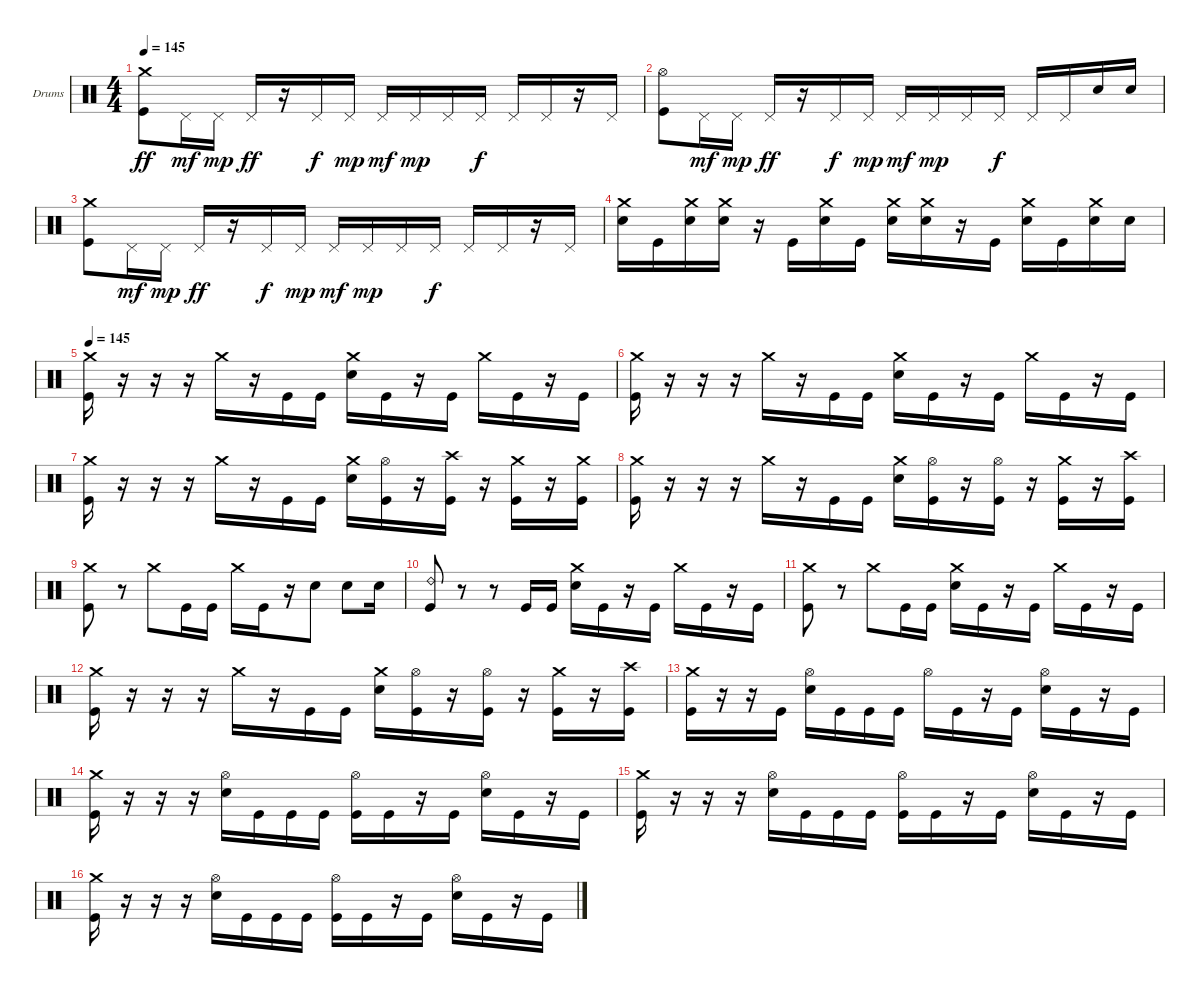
\bracketExtendMode groupsimilarinstruments
\firstSystemTrackNameOrientation horizontal
\otherSystemsTrackNameOrientation horizontal
\track ("Drumkit" "Drums") {instrument percussion}
\staff {score}
\articulation defaults
\ts (4 4)
\tempo 145
\clef neutral
\ks c
("Crash medium (hit)" "Kick (hit)").8{dy ff} "Pedal Hi-Hat (hit)".16{dy mf} "Pedal Hi-Hat (hit)".16{dy mp} "Pedal Hi-Hat (hit)".16{dy ff} r.16 "Pedal Hi-Hat (hit)".16{dy f} "Pedal Hi-Hat (hit)".16{dy mp} "Pedal Hi-Hat (hit)".16{dy mf} "Pedal Hi-Hat (hit)".16{dy mp} "Pedal Hi-Hat (hit)".16 "Pedal Hi-Hat (hit)".16{dy f} "Pedal Hi-Hat (hit)".16 "Pedal Hi-Hat (hit)".16 r.16 "Pedal Hi-Hat (hit)".16 |
("Hi-Hat (open)" "Kick (hit)").8 "Pedal Hi-Hat (hit)".16{dy mf} "Pedal Hi-Hat (hit)".16{dy mp} "Pedal Hi-Hat (hit)".16{dy ff} r.16 "Pedal Hi-Hat (hit)".16{dy f} "Pedal Hi-Hat (hit)".16{dy mp} "Pedal Hi-Hat (hit)".16{dy mf} "Pedal Hi-Hat (hit)".16{dy mp} "Pedal Hi-Hat (hit)".16 "Pedal Hi-Hat (hit)".16{dy f} "Pedal Hi-Hat (hit)".16 "Pedal Hi-Hat (hit)".16 "Snare (hit) 2".16 "Snare (hit) 2".16 |
("Crash medium (hit)" "Kick (hit)").8 "Pedal Hi-Hat (hit)".16{dy mf} "Pedal Hi-Hat (hit)".16{dy mp} "Pedal Hi-Hat (hit)".16{dy ff} r.16 "Pedal Hi-Hat (hit)".16{dy f} "Pedal Hi-Hat (hit)".16{dy mp} "Pedal Hi-Hat (hit)".16{dy mf} "Pedal Hi-Hat (hit)".16{dy mp} "Pedal Hi-Hat (hit)".16 "Pedal Hi-Hat (hit)".16{dy f} "Pedal Hi-Hat (hit)".16 "Pedal Hi-Hat (hit)".16 r.16 "Pedal Hi-Hat (hit)".16 |
("Crash medium (hit)" "Snare (hit) 2").16 "Kick (hit)".16 ("Crash medium (hit)" "Snare (hit) 2").16 ("Crash medium (hit)" "Snare (hit) 2").16 r.16 "Kick (hit)".16 ("Crash medium (hit)" "Snare (hit) 2").16 "Kick (hit)".16 ("Crash medium (hit)" "Snare (hit) 2").16 ("Crash medium (hit)" "Snare (hit) 2").16 r.16 "Kick (hit)".16 ("Crash medium (hit)" "Snare (hit) 2").16 "Kick (hit)".16 ("Crash medium (hit)" "Snare (hit) 2").16 "Snare (hit) 2".16 |
\tempo 145
("Crash medium (hit)" "Kick (hit)").16 r.16 r.16 r.16 "Crash medium (hit)".16 r.16 "Kick (hit)".16 "Kick (hit)".16 ("Crash medium (hit)" "Snare (hit) 2").16 "Kick (hit)".16 r.16 "Kick (hit)".16 "Crash medium (hit)".16 "Kick (hit)".16 r.16 "Kick (hit)".16 |
("Crash medium (hit)" "Kick (hit)").16 r.16 r.16 r.16 "Crash medium (hit)".16 r.16 "Kick (hit)".16 "Kick (hit)".16 ("Crash medium (hit)" "Snare (hit) 2").16 "Kick (hit)".16 r.16 "Kick (hit)".16 "Crash medium (hit)".16 "Kick (hit)".16 r.16 "Kick (hit)".16 |
("Crash medium (hit)" "Kick (hit)").16 r.16 r.16 r.16 "Crash medium (hit)".16 r.16 "Kick (hit)".16 "Kick (hit)".16 ("Crash medium (hit)" "Snare (hit) 2").16 ("Hi-Hat (open)" "Kick (hit)").16 r.16 ("Crash high (hit)" "Kick (hit)").16 r.16 ("Crash medium (hit)" "Kick (hit)").16 r.16 ("Crash medium (hit)" "Kick (hit)").16 |
("Crash medium (hit)" "Kick (hit)").16 r.16 r.16 r.16 "Crash medium (hit)".16 r.16 "Kick (hit)".16 "Kick (hit)".16 ("Crash medium (hit)" "Snare (hit) 2").16 ("Hi-Hat (open)" "Kick (hit)").16 r.16 ("Hi-Hat (open)" "Kick (hit)").16 r.16 ("Crash medium (hit)" "Kick (hit)").16 r.16 ("Crash high (hit)" "Kick (hit)").16 |
("Crash medium (hit)" "Kick (hit)").8 r.8 "Crash medium (hit)".8 "Kick (hit)".16 "Kick (hit)".16 "Crash medium (hit)".16 "Kick (hit)".16 r.16 "Snare (hit) 2".8 "Snare (hit) 2".8 "Snare (hit) 2".16 |
("Ride (bell) 2" "Kick (hit)").8 r.8 r.8 "Kick (hit)".16 "Kick (hit)".16 ("Crash medium (hit)" "Snare (hit) 2").16 "Kick (hit)".16 r.16 "Kick (hit)".16 "Crash medium (hit)".16 "Kick (hit)".16 r.16 "Kick (hit)".16 |
("Crash medium (hit)" "Kick (hit)").8 r.8 "Crash medium (hit)".8 "Kick (hit)".16 "Kick (hit)".16 ("Crash medium (hit)" "Snare (hit) 2").16 "Kick (hit)".16 r.16 "Kick (hit)".16 "Crash medium (hit)".16 "Kick (hit)".16 r.16 "Kick (hit)".16 |
("Crash medium (hit)" "Kick (hit)").16 r.16 r.16 r.16 "Crash medium (hit)".16 r.16 "Kick (hit)".16 "Kick (hit)".16 ("Crash medium (hit)" "Snare (hit) 2").16 ("Hi-Hat (open)" "Kick (hit)").16 r.16 ("Hi-Hat (open)" "Kick (hit)").16 r.16 ("Crash medium (hit)" "Kick (hit)").16 r.16 ("Crash high (hit)" "Kick (hit)").16 |
("Crash medium (hit)" "Kick (hit)").16 r.16 r.16 "Kick (hit)".16 ("Hi-Hat (open)" "Snare (hit) 2").16 "Kick (hit)".16 "Kick (hit)".16 "Kick (hit)".16 "Hi-Hat (open)".16 "Kick (hit)".16 r.16 "Kick (hit)".16 ("Hi-Hat (open)" "Snare (hit) 2").16 "Kick (hit)".16 r.16 "Kick (hit)".16 |
("Crash medium (hit)" "Kick (hit)").16 r.16 r.16 r.16 ("Hi-Hat (open)" "Snare (hit) 2").16 "Kick (hit)".16 "Kick (hit)".16 "Kick (hit)".16 ("Hi-Hat (open)" "Kick (hit)").16 "Kick (hit)".16 r.16 "Kick (hit)".16 ("Hi-Hat (open)" "Snare (hit) 2").16 "Kick (hit)".16 r.16 "Kick (hit)".16 |
("Crash medium (hit)" "Kick (hit)").16 r.16 r.16 r.16 ("Hi-Hat (open)" "Snare (hit) 2").16 "Kick (hit)".16 "Kick (hit)".16 "Kick (hit)".16 ("Hi-Hat (open)" "Kick (hit)").16 "Kick (hit)".16 r.16 "Kick (hit)".16 ("Hi-Hat (open)" "Snare (hit) 2").16 "Kick (hit)".16 r.16 "Kick (hit)".16 |
("Crash medium (hit)" "Kick (hit)").16 r.16 r.16 r.16 ("Hi-Hat (open)" "Snare (hit) 2").16 "Kick (hit)".16 "Kick (hit)".16 "Kick (hit)".16 ("Hi-Hat (open)" "Kick (hit)").16 "Kick (hit)".16 r.16 "Kick (hit)".16 ("Hi-Hat (open)" "Snare (hit) 2").16 "Kick (hit)".16 r.16 "Kick (hit)".16
